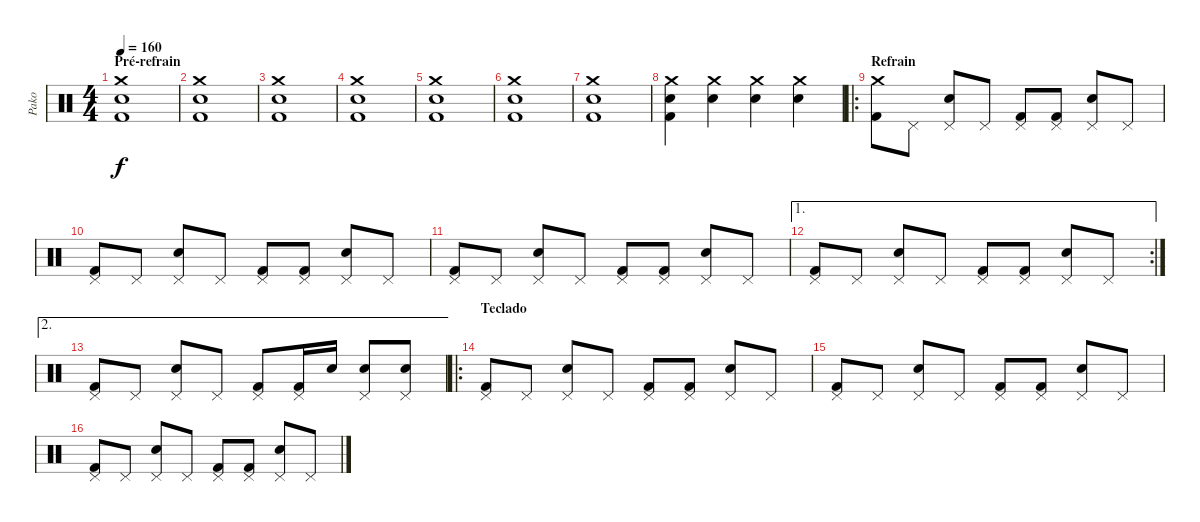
\track ("Pako" "Pako") {instrument percussion}
\staff {score}
\articulation defaults
\ts (4 4)
\section ("" "Pré-refrain")
\tempo 160
\clef neutral
\ks c
("Crash medium (hit)" "Snare (hit) 2" "Kick (hit) 2").1{dy f} |
("Crash medium (hit)" "Snare (hit) 2" "Kick (hit) 2").1 |
("Crash medium (hit)" "Snare (hit) 2" "Kick (hit) 2").1 |
("Crash medium (hit)" "Snare (hit) 2" "Kick (hit) 2").1 |
("Crash medium (hit)" "Snare (hit) 2" "Kick (hit) 2").1 |
("Crash medium (hit)" "Snare (hit) 2" "Kick (hit) 2").1 |
("Crash medium (hit)" "Snare (hit) 2" "Kick (hit) 2").1 |
("Crash medium (hit)" "Snare (hit) 2" "Kick (hit) 2").4 ("Crash medium (hit)" "Snare (hit) 2").4 ("Crash medium (hit)" "Snare (hit) 2").4 ("Crash medium (hit)" "Snare (hit) 2").4 |
\ro
\section ("" "Refrain")
("Crash medium (hit)" "Kick (hit) 2").8 "Pedal Hi-Hat (hit)".8 ("Pedal Hi-Hat (hit)" "Snare (hit) 2").8 "Pedal Hi-Hat (hit)".8 ("Pedal Hi-Hat (hit)" "Kick (hit) 2").8 ("Pedal Hi-Hat (hit)" "Kick (hit) 2").8 ("Pedal Hi-Hat (hit)" "Snare (hit) 2").8 "Pedal Hi-Hat (hit)".8 |
("Pedal Hi-Hat (hit)" "Kick (hit) 2").8 "Pedal Hi-Hat (hit)".8 ("Pedal Hi-Hat (hit)" "Snare (hit) 2").8 "Pedal Hi-Hat (hit)".8 ("Pedal Hi-Hat (hit)" "Kick (hit) 2").8 ("Pedal Hi-Hat (hit)" "Kick (hit) 2").8 ("Pedal Hi-Hat (hit)" "Snare (hit) 2").8 "Pedal Hi-Hat (hit)".8 |
("Pedal Hi-Hat (hit)" "Kick (hit) 2").8 "Pedal Hi-Hat (hit)".8 ("Pedal Hi-Hat (hit)" "Snare (hit) 2").8 "Pedal Hi-Hat (hit)".8 ("Pedal Hi-Hat (hit)" "Kick (hit) 2").8 ("Pedal Hi-Hat (hit)" "Kick (hit) 2").8 ("Pedal Hi-Hat (hit)" "Snare (hit) 2").8 "Pedal Hi-Hat (hit)".8 |
\ae 1
\rc 2
("Pedal Hi-Hat (hit)" "Kick (hit) 2").8 "Pedal Hi-Hat (hit)".8 ("Pedal Hi-Hat (hit)" "Snare (hit) 2").8 "Pedal Hi-Hat (hit)".8 ("Pedal Hi-Hat (hit)" "Kick (hit) 2").8 ("Pedal Hi-Hat (hit)" "Kick (hit) 2").8 ("Pedal Hi-Hat (hit)" "Snare (hit) 2").8 "Pedal Hi-Hat (hit)".8 |
\ae 2
("Pedal Hi-Hat (hit)" "Kick (hit) 2").8 "Pedal Hi-Hat (hit)".8 ("Pedal Hi-Hat (hit)" "Snare (hit) 2").8 "Pedal Hi-Hat (hit)".8 ("Pedal Hi-Hat (hit)" "Kick (hit) 2").8 ("Pedal Hi-Hat (hit)" "Kick (hit) 2").16 "Snare (hit) 2".16 ("Pedal Hi-Hat (hit)" "Snare (hit) 2").8 ("Pedal Hi-Hat (hit)" "Snare (hit) 2").8 |
\ro
\section ("" "Teclado")
("Pedal Hi-Hat (hit)" "Kick (hit) 2").8 "Pedal Hi-Hat (hit)".8 ("Pedal Hi-Hat (hit)" "Snare (hit) 2").8 "Pedal Hi-Hat (hit)".8 ("Pedal Hi-Hat (hit)" "Kick (hit) 2").8 ("Pedal Hi-Hat (hit)" "Kick (hit) 2").8 ("Pedal Hi-Hat (hit)" "Snare (hit) 2").8 "Pedal Hi-Hat (hit)".8 |
("Pedal Hi-Hat (hit)" "Kick (hit) 2").8 "Pedal Hi-Hat (hit)".8 ("Pedal Hi-Hat (hit)" "Snare (hit) 2").8 "Pedal Hi-Hat (hit)".8 ("Pedal Hi-Hat (hit)" "Kick (hit) 2").8 ("Pedal Hi-Hat (hit)" "Kick (hit) 2").8 ("Pedal Hi-Hat (hit)" "Snare (hit) 2").8 "Pedal Hi-Hat (hit)".8 |
("Pedal Hi-Hat (hit)" "Kick (hit) 2").8 "Pedal Hi-Hat (hit)".8 ("Pedal Hi-Hat (hit)" "Snare (hit) 2").8 "Pedal Hi-Hat (hit)".8 ("Pedal Hi-Hat (hit)" "Kick (hit) 2").8 ("Pedal Hi-Hat (hit)" "Kick (hit) 2").8 ("Pedal Hi-Hat (hit)" "Snare (hit) 2").8 "Pedal Hi-Hat (hit)".8
